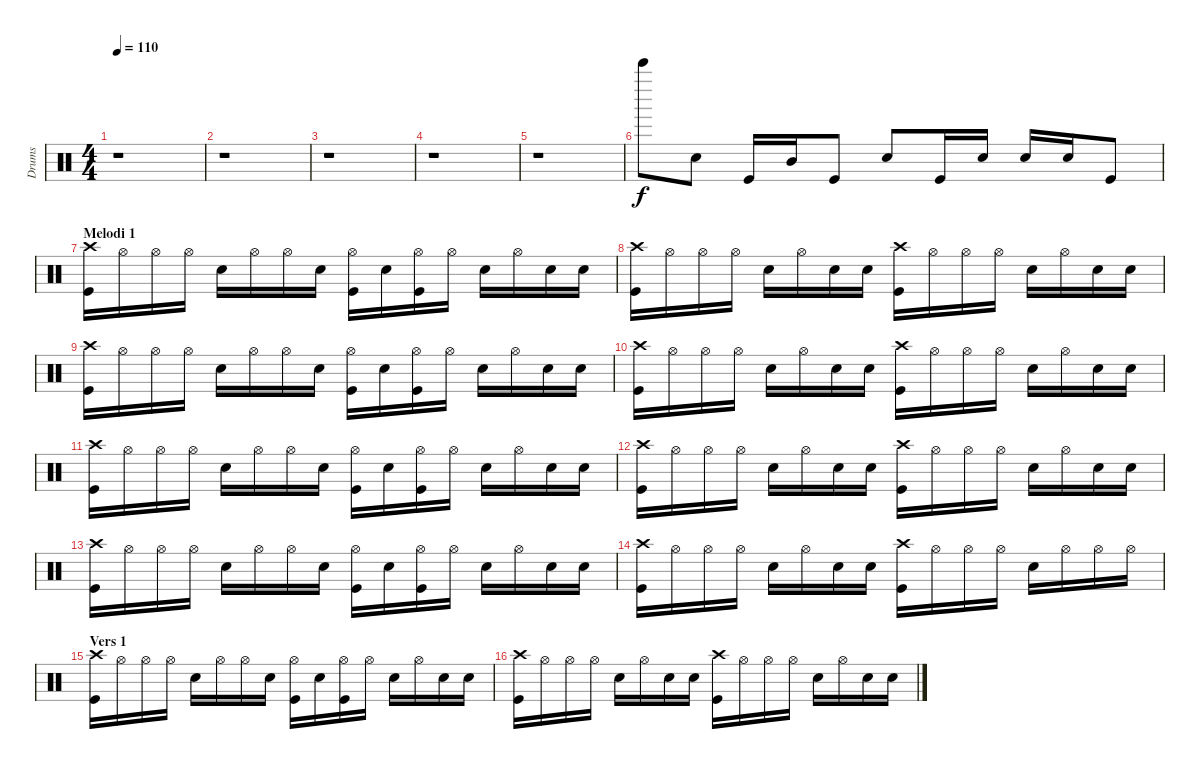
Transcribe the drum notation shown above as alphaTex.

\track ("Drums" "Drums") {instrument percussion}
\staff {score}
\articulation defaults
\ts (4 4)
\tempo 110
\clef neutral
\ks c
r.1{dy f} |
r.1 |
r.1 |
r.1 |
r.1 |
"Bell Tree (hit)".8 "Snare (hit) 2".8 "Kick (hit)".16 "Mid Tom (hit)".16 "Kick (hit)".8 "Snare (hit) 2".8 "Kick (hit)".16 "Snare (hit) 2".16 "Snare (hit) 2".16 "Snare (hit) 2".16 "Kick (hit)".8 |
\section ("" "Melodi 1")
("Crash high (hit)" "Kick (hit)").16 "Hi-Hat (open)".16 "Hi-Hat (open)".16 "Hi-Hat (open)".16 "Snare (hit) 2".16 "Hi-Hat (open)".16 "Hi-Hat (open)".16 "Snare (hit) 2".16 ("Hi-Hat (open)" "Kick (hit)").16 "Snare (hit) 2".16 ("Hi-Hat (open)" "Kick (hit)").16 "Hi-Hat (open)".16 "Snare (hit) 2".16 "Hi-Hat (open)".16 "Snare (hit) 2".16 "Snare (hit) 2".16 |
("Crash high (hit)" "Kick (hit)").16 "Hi-Hat (open)".16 "Hi-Hat (open)".16 "Hi-Hat (open)".16 "Snare (hit) 2".16 "Hi-Hat (open)".16 "Snare (hit) 2".16 "Snare (hit) 2".16 ("Crash high (hit)" "Kick (hit)").16 "Hi-Hat (open)".16 "Hi-Hat (open)".16 "Hi-Hat (open)".16 "Snare (hit) 2".16 "Hi-Hat (open)".16 "Snare (hit) 2".16 "Snare (hit) 2".16 |
("Crash high (hit)" "Kick (hit)").16 "Hi-Hat (open)".16 "Hi-Hat (open)".16 "Hi-Hat (open)".16 "Snare (hit) 2".16 "Hi-Hat (open)".16 "Hi-Hat (open)".16 "Snare (hit) 2".16 ("Hi-Hat (open)" "Kick (hit)").16 "Snare (hit) 2".16 ("Hi-Hat (open)" "Kick (hit)").16 "Hi-Hat (open)".16 "Snare (hit) 2".16 "Hi-Hat (open)".16 "Snare (hit) 2".16 "Snare (hit) 2".16 |
("Crash high (hit)" "Kick (hit)").16 "Hi-Hat (open)".16 "Hi-Hat (open)".16 "Hi-Hat (open)".16 "Snare (hit) 2".16 "Hi-Hat (open)".16 "Snare (hit) 2".16 "Snare (hit) 2".16 ("Crash high (hit)" "Kick (hit)").16 "Hi-Hat (open)".16 "Hi-Hat (open)".16 "Hi-Hat (open)".16 "Snare (hit) 2".16 "Hi-Hat (open)".16 "Snare (hit) 2".16 "Snare (hit) 2".16 |
("Crash high (hit)" "Kick (hit)").16 "Hi-Hat (open)".16 "Hi-Hat (open)".16 "Hi-Hat (open)".16 "Snare (hit) 2".16 "Hi-Hat (open)".16 "Hi-Hat (open)".16 "Snare (hit) 2".16 ("Hi-Hat (open)" "Kick (hit)").16 "Snare (hit) 2".16 ("Hi-Hat (open)" "Kick (hit)").16 "Hi-Hat (open)".16 "Snare (hit) 2".16 "Hi-Hat (open)".16 "Snare (hit) 2".16 "Snare (hit) 2".16 |
("Crash high (hit)" "Kick (hit)").16 "Hi-Hat (open)".16 "Hi-Hat (open)".16 "Hi-Hat (open)".16 "Snare (hit) 2".16 "Hi-Hat (open)".16 "Snare (hit) 2".16 "Snare (hit) 2".16 ("Crash high (hit)" "Kick (hit)").16 "Hi-Hat (open)".16 "Hi-Hat (open)".16 "Hi-Hat (open)".16 "Snare (hit) 2".16 "Hi-Hat (open)".16 "Snare (hit) 2".16 "Snare (hit) 2".16 |
("Crash high (hit)" "Kick (hit)").16 "Hi-Hat (open)".16 "Hi-Hat (open)".16 "Hi-Hat (open)".16 "Snare (hit) 2".16 "Hi-Hat (open)".16 "Hi-Hat (open)".16 "Snare (hit) 2".16 ("Hi-Hat (open)" "Kick (hit)").16 "Snare (hit) 2".16 ("Hi-Hat (open)" "Kick (hit)").16 "Hi-Hat (open)".16 "Snare (hit) 2".16 "Hi-Hat (open)".16 "Snare (hit) 2".16 "Snare (hit) 2".16 |
("Crash high (hit)" "Kick (hit)").16 "Hi-Hat (open)".16 "Hi-Hat (open)".16 "Hi-Hat (open)".16 "Snare (hit) 2".16 "Hi-Hat (open)".16 "Snare (hit) 2".16 "Snare (hit) 2".16 ("Crash high (hit)" "Kick (hit)").16 "Hi-Hat (open)".16 "Hi-Hat (open)".16 "Hi-Hat (open)".16 "Snare (hit) 2".16 "Hi-Hat (open)".16 "Hi-Hat (open)".16 "Hi-Hat (open)".16 |
\section ("" "Vers 1")
("Crash high (hit)" "Kick (hit)").16 "Hi-Hat (open)".16 "Hi-Hat (open)".16 "Hi-Hat (open)".16 "Snare (hit) 2".16 "Hi-Hat (open)".16 "Hi-Hat (open)".16 "Snare (hit) 2".16 ("Hi-Hat (open)" "Kick (hit)").16 "Snare (hit) 2".16 ("Hi-Hat (open)" "Kick (hit)").16 "Hi-Hat (open)".16 "Snare (hit) 2".16 "Hi-Hat (open)".16 "Snare (hit) 2".16 "Snare (hit) 2".16 |
("Crash high (hit)" "Kick (hit)").16 "Hi-Hat (open)".16 "Hi-Hat (open)".16 "Hi-Hat (open)".16 "Snare (hit) 2".16 "Hi-Hat (open)".16 "Snare (hit) 2".16 "Snare (hit) 2".16 ("Crash high (hit)" "Kick (hit)").16 "Hi-Hat (open)".16 "Hi-Hat (open)".16 "Hi-Hat (open)".16 "Snare (hit) 2".16 "Hi-Hat (open)".16 "Snare (hit) 2".16 "Snare (hit) 2".16
